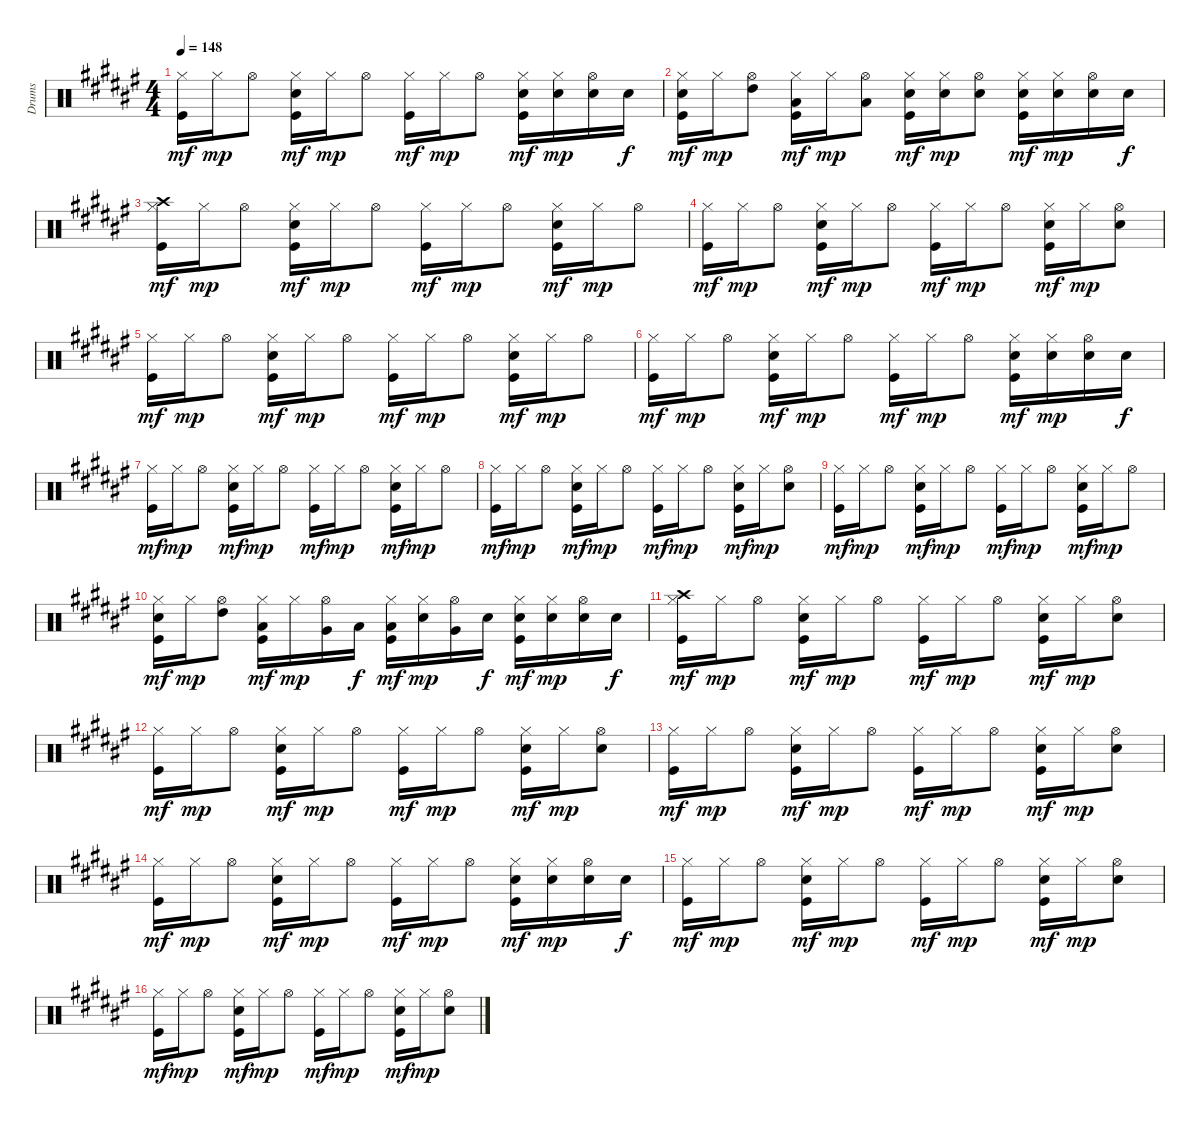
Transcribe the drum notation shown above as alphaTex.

\track ("Drums" "Drums") {instrument percussion}
\staff {score}
\articulation defaults
\ts (4 4)
\tempo 148
\clef neutral
\ks d#minor
("Kick (hit)" "Hi-Hat (closed)").16{dy mf} "Hi-Hat (closed)".16{dy mp} "Hi-Hat (open)".8 ("Electric Snare (hit)" "Kick (hit)" "Hi-Hat (closed)").16{dy mf} "Hi-Hat (closed)".16{dy mp} "Hi-Hat (open)".8 ("Kick (hit)" "Hi-Hat (closed)").16{dy mf} "Hi-Hat (closed)".16{dy mp} "Hi-Hat (open)".8 ("Snare (hit) 2" "Kick (hit)" "Hi-Hat (closed)").16{dy mf} ("Snare (hit) 2" "Hi-Hat (closed)").16{dy mp} ("Snare (hit) 2" "Hi-Hat (open)").16 "Snare (hit) 2".16{dy f} |
("Kick (hit)" "Hi-Hat (closed)" "Electric Snare (hit)").16{dy mf} "Hi-Hat (closed)".16{dy mp} ("High Tom (hit)" "Hi-Hat (open)").8 ("Kick (hit)" "Low Tom (hit)" "Hi-Hat (closed)").16{dy mf} "Hi-Hat (closed)".16{dy mp} ("Low Floor Tom (hit)" "Hi-Hat (open)").8 ("Kick (hit)" "Electric Snare (hit)" "Hi-Hat (closed)").16{dy mf} ("Electric Snare (hit)" "Hi-Hat (closed)").16{dy mp} ("Electric Snare (hit)" "Hi-Hat (open)").8 ("Kick (hit)" "Electric Snare (hit)" "Hi-Hat (closed)").16{dy mf} ("Electric Snare (hit)" "Hi-Hat (closed)").16{dy mp} ("Electric Snare (hit)" "Hi-Hat (open)").16 "Electric Snare (hit)".16{dy f} |
("Crash high (hit)" "Kick (hit)" "Hi-Hat (closed)").16{dy mf} "Hi-Hat (closed)".16{dy mp} "Hi-Hat (open)".8 ("Electric Snare (hit)" "Kick (hit)" "Hi-Hat (closed)").16{dy mf} "Hi-Hat (closed)".16{dy mp} "Hi-Hat (open)".8 ("Kick (hit)" "Hi-Hat (closed)").16{dy mf} "Hi-Hat (closed)".16{dy mp} "Hi-Hat (open)".8 ("Electric Snare (hit)" "Kick (hit)" "Hi-Hat (closed)").16{dy mf} "Hi-Hat (closed)".16{dy mp} "Hi-Hat (open)".8 |
("Kick (hit)" "Hi-Hat (closed)").16{dy mf} "Hi-Hat (closed)".16{dy mp} "Hi-Hat (open)".8 ("Electric Snare (hit)" "Kick (hit)" "Hi-Hat (closed)").16{dy mf} "Hi-Hat (closed)".16{dy mp} "Hi-Hat (open)".8 ("Kick (hit)" "Hi-Hat (closed)").16{dy mf} "Hi-Hat (closed)".16{dy mp} "Hi-Hat (open)".8 ("Electric Snare (hit)" "Kick (hit)" "Hi-Hat (closed)").16{dy mf} "Hi-Hat (closed)".16{dy mp} ("Snare (hit) 2" "Hi-Hat (open)").8 |
("Kick (hit)" "Hi-Hat (closed)").16{dy mf} "Hi-Hat (closed)".16{dy mp} "Hi-Hat (open)".8 ("Electric Snare (hit)" "Kick (hit)" "Hi-Hat (closed)").16{dy mf} "Hi-Hat (closed)".16{dy mp} "Hi-Hat (open)".8 ("Kick (hit)" "Hi-Hat (closed)").16{dy mf} "Hi-Hat (closed)".16{dy mp} "Hi-Hat (open)".8 ("Electric Snare (hit)" "Kick (hit)" "Hi-Hat (closed)").16{dy mf} "Hi-Hat (closed)".16{dy mp} "Hi-Hat (open)".8 |
("Kick (hit)" "Hi-Hat (closed)").16{dy mf} "Hi-Hat (closed)".16{dy mp} "Hi-Hat (open)".8 ("Electric Snare (hit)" "Kick (hit)" "Hi-Hat (closed)").16{dy mf} "Hi-Hat (closed)".16{dy mp} "Hi-Hat (open)".8 ("Kick (hit)" "Hi-Hat (closed)").16{dy mf} "Hi-Hat (closed)".16{dy mp} "Hi-Hat (open)".8 ("Snare (hit) 2" "Kick (hit)" "Hi-Hat (closed)").16{dy mf} ("Snare (hit) 2" "Hi-Hat (closed)").16{dy mp} ("Snare (hit) 2" "Hi-Hat (open)").16 "Snare (hit) 2".16{dy f} |
("Kick (hit)" "Hi-Hat (closed)").16{dy mf} "Hi-Hat (closed)".16{dy mp} "Hi-Hat (open)".8 ("Electric Snare (hit)" "Kick (hit)" "Hi-Hat (closed)").16{dy mf} "Hi-Hat (closed)".16{dy mp} "Hi-Hat (open)".8 ("Kick (hit)" "Hi-Hat (closed)").16{dy mf} "Hi-Hat (closed)".16{dy mp} "Hi-Hat (open)".8 ("Electric Snare (hit)" "Kick (hit)" "Hi-Hat (closed)").16{dy mf} "Hi-Hat (closed)".16{dy mp} "Hi-Hat (open)".8 |
("Kick (hit)" "Hi-Hat (closed)").16{dy mf} "Hi-Hat (closed)".16{dy mp} "Hi-Hat (open)".8 ("Electric Snare (hit)" "Kick (hit)" "Hi-Hat (closed)").16{dy mf} "Hi-Hat (closed)".16{dy mp} "Hi-Hat (open)".8 ("Kick (hit)" "Hi-Hat (closed)").16{dy mf} "Hi-Hat (closed)".16{dy mp} "Hi-Hat (open)".8 ("Electric Snare (hit)" "Kick (hit)" "Hi-Hat (closed)").16{dy mf} "Hi-Hat (closed)".16{dy mp} ("Snare (hit) 2" "Hi-Hat (open)").8 |
("Kick (hit)" "Hi-Hat (closed)").16{dy mf} "Hi-Hat (closed)".16{dy mp} "Hi-Hat (open)".8 ("Electric Snare (hit)" "Kick (hit)" "Hi-Hat (closed)").16{dy mf} "Hi-Hat (closed)".16{dy mp} "Hi-Hat (open)".8 ("Kick (hit)" "Hi-Hat (closed)").16{dy mf} "Hi-Hat (closed)".16{dy mp} "Hi-Hat (open)".8 ("Electric Snare (hit)" "Kick (hit)" "Hi-Hat (closed)").16{dy mf} "Hi-Hat (closed)".16{dy mp} "Hi-Hat (open)".8 |
("Kick (hit)" "Electric Snare (hit)" "Hi-Hat (closed)").16{dy mf} "Hi-Hat (closed)".16{dy mp} ("High Tom (hit)" "Hi-Hat (open)").8 ("Kick (hit)" "Low Tom (hit)" "Hi-Hat (closed)").16{dy mf} "Hi-Hat (closed)".16{dy mp} ("Very Low Tom (hit)" "Hi-Hat (open)").16 "Low Floor Tom (hit)".16{dy f} ("Kick (hit)" "Hi-Hat (closed)" "Low Floor Tom (hit)").16{dy mf} ("Snare (hit) 2" "Hi-Hat (closed)").16{dy mp} ("Very Low Tom (hit)" "Hi-Hat (open)").16 "Electric Snare (hit)".16{dy f} ("Kick (hit)" "Hi-Hat (closed)" "Snare (hit) 2").16{dy mf} ("Snare (hit) 2" "Hi-Hat (closed)").16{dy mp} ("Electric Snare (hit)" "Hi-Hat (open)").16 "Electric Snare (hit)".16{dy f} |
("Crash high (hit)" "Kick (hit)" "Hi-Hat (closed)").16{dy mf} "Hi-Hat (closed)".16{dy mp} "Hi-Hat (open)".8 ("Electric Snare (hit)" "Kick (hit)" "Hi-Hat (closed)").16{dy mf} "Hi-Hat (closed)".16{dy mp} "Hi-Hat (open)".8 ("Kick (hit)" "Hi-Hat (closed)").16{dy mf} "Hi-Hat (closed)".16{dy mp} "Hi-Hat (open)".8 ("Electric Snare (hit)" "Kick (hit)" "Hi-Hat (closed)").16{dy mf} "Hi-Hat (closed)".16{dy mp} ("Snare (hit) 2" "Hi-Hat (open)").8 |
("Kick (hit)" "Hi-Hat (closed)").16{dy mf} "Hi-Hat (closed)".16{dy mp} "Hi-Hat (open)".8 ("Electric Snare (hit)" "Kick (hit)" "Hi-Hat (closed)").16{dy mf} "Hi-Hat (closed)".16{dy mp} "Hi-Hat (open)".8 ("Kick (hit)" "Hi-Hat (closed)").16{dy mf} "Hi-Hat (closed)".16{dy mp} "Hi-Hat (open)".8 ("Electric Snare (hit)" "Kick (hit)" "Hi-Hat (closed)").16{dy mf} "Hi-Hat (closed)".16{dy mp} ("Snare (hit) 2" "Hi-Hat (open)").8 |
("Kick (hit)" "Hi-Hat (closed)").16{dy mf} "Hi-Hat (closed)".16{dy mp} "Hi-Hat (open)".8 ("Electric Snare (hit)" "Kick (hit)" "Hi-Hat (closed)").16{dy mf} "Hi-Hat (closed)".16{dy mp} "Hi-Hat (open)".8 ("Kick (hit)" "Hi-Hat (closed)").16{dy mf} "Hi-Hat (closed)".16{dy mp} "Hi-Hat (open)".8 ("Electric Snare (hit)" "Kick (hit)" "Hi-Hat (closed)").16{dy mf} "Hi-Hat (closed)".16{dy mp} ("Snare (hit) 2" "Hi-Hat (open)").8 |
("Kick (hit)" "Hi-Hat (closed)").16{dy mf} "Hi-Hat (closed)".16{dy mp} "Hi-Hat (open)".8 ("Electric Snare (hit)" "Kick (hit)" "Hi-Hat (closed)").16{dy mf} "Hi-Hat (closed)".16{dy mp} "Hi-Hat (open)".8 ("Kick (hit)" "Hi-Hat (closed)").16{dy mf} "Hi-Hat (closed)".16{dy mp} "Hi-Hat (open)".8 ("Snare (hit) 2" "Kick (hit)" "Hi-Hat (closed)").16{dy mf} ("Snare (hit) 2" "Hi-Hat (closed)").16{dy mp} ("Snare (hit) 2" "Hi-Hat (open)").16 "Snare (hit) 2".16{dy f} |
("Kick (hit)" "Hi-Hat (closed)").16{dy mf} "Hi-Hat (closed)".16{dy mp} "Hi-Hat (open)".8 ("Electric Snare (hit)" "Kick (hit)" "Hi-Hat (closed)").16{dy mf} "Hi-Hat (closed)".16{dy mp} "Hi-Hat (open)".8 ("Kick (hit)" "Hi-Hat (closed)").16{dy mf} "Hi-Hat (closed)".16{dy mp} "Hi-Hat (open)".8 ("Electric Snare (hit)" "Kick (hit)" "Hi-Hat (closed)").16{dy mf} "Hi-Hat (closed)".16{dy mp} ("Snare (hit) 2" "Hi-Hat (open)").8 |
("Kick (hit)" "Hi-Hat (closed)").16{dy mf} "Hi-Hat (closed)".16{dy mp} "Hi-Hat (open)".8 ("Electric Snare (hit)" "Kick (hit)" "Hi-Hat (closed)").16{dy mf} "Hi-Hat (closed)".16{dy mp} "Hi-Hat (open)".8 ("Kick (hit)" "Hi-Hat (closed)").16{dy mf} "Hi-Hat (closed)".16{dy mp} "Hi-Hat (open)".8 ("Electric Snare (hit)" "Kick (hit)" "Hi-Hat (closed)").16{dy mf} "Hi-Hat (closed)".16{dy mp} ("Snare (hit) 2" "Hi-Hat (open)").8
